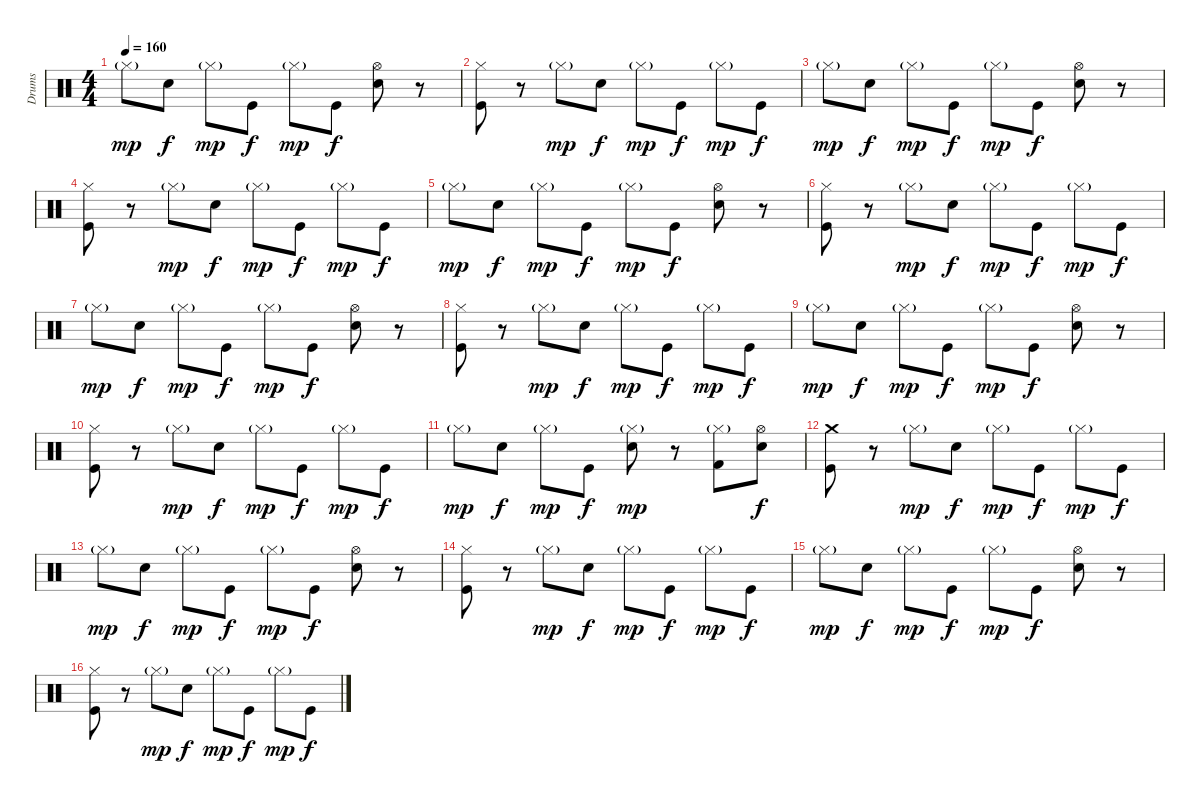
\track ("Drums" "Drums") {instrument percussion}
\staff {score}
\articulation defaults
\ts (4 4)
\tempo 160
\clef neutral
\ks c "Hi-Hat (closed)"{g}.8{dy mp} "Electric Snare (hit)".8{dy f} "Hi-Hat (closed)"{g}.8{dy mp} "Kick (hit)".8{dy f} "Hi-Hat (closed)"{g}.8{dy mp} "Kick (hit)".8{dy f}
("Hi-Hat (open)" "Electric Snare (hit)").8 r.8 |
("Hi-Hat (closed)" "Kick (hit)").8 r.8 "Hi-Hat (closed)"{g}.8{dy mp} "Electric Snare (hit)".8{dy f} "Hi-Hat (closed)"{g}.8{dy mp} "Kick (hit)".8{dy f} "Hi-Hat (closed)"{g}.8{dy mp} "Kick (hit)".8{dy f} |
"Hi-Hat (closed)"{g}.8{dy mp} "Electric Snare (hit)".8{dy f} "Hi-Hat (closed)"{g}.8{dy mp} "Kick (hit)".8{dy f} "Hi-Hat (closed)"{g}.8{dy mp} "Kick (hit)".8{dy f} ("Hi-Hat (open)" "Electric Snare (hit)").8 r.8 |
("Hi-Hat (closed)" "Kick (hit)").8 r.8 "Hi-Hat (closed)"{g}.8{dy mp} "Electric Snare (hit)".8{dy f} "Hi-Hat (closed)"{g}.8{dy mp} "Kick (hit)".8{dy f} "Hi-Hat (closed)"{g}.8{dy mp} "Kick (hit)".8{dy f} |
"Hi-Hat (closed)"{g}.8{dy mp} "Electric Snare (hit)".8{dy f} "Hi-Hat (closed)"{g}.8{dy mp} "Kick (hit)".8{dy f} "Hi-Hat (closed)"{g}.8{dy mp} "Kick (hit)".8{dy f} ("Hi-Hat (open)" "Electric Snare (hit)").8 r.8 |
("Hi-Hat (closed)" "Kick (hit)").8 r.8 "Hi-Hat (closed)"{g}.8{dy mp} "Electric Snare (hit)".8{dy f} "Hi-Hat (closed)"{g}.8{dy mp} "Kick (hit)".8{dy f} "Hi-Hat (closed)"{g}.8{dy mp} "Kick (hit)".8{dy f} |
"Hi-Hat (closed)"{g}.8{dy mp} "Electric Snare (hit)".8{dy f} "Hi-Hat (closed)"{g}.8{dy mp} "Kick (hit)".8{dy f} "Hi-Hat (closed)"{g}.8{dy mp} "Kick (hit)".8{dy f} ("Hi-Hat (open)" "Electric Snare (hit)").8 r.8 |
("Hi-Hat (closed)" "Kick (hit)").8 r.8 "Hi-Hat (closed)"{g}.8{dy mp} "Electric Snare (hit)".8{dy f} "Hi-Hat (closed)"{g}.8{dy mp} "Kick (hit)".8{dy f} "Hi-Hat (closed)"{g}.8{dy mp} "Kick (hit)".8{dy f} |
"Hi-Hat (closed)"{g}.8{dy mp} "Electric Snare (hit)".8{dy f} "Hi-Hat (closed)"{g}.8{dy mp} "Kick (hit)".8{dy f} "Hi-Hat (closed)"{g}.8{dy mp} "Kick (hit)".8{dy f} ("Hi-Hat (open)" "Electric Snare (hit)").8 r.8 |
("Hi-Hat (closed)" "Kick (hit)").8 r.8 "Hi-Hat (closed)"{g}.8{dy mp} "Electric Snare (hit)".8{dy f} "Hi-Hat (closed)"{g}.8{dy mp} "Kick (hit)".8{dy f} "Hi-Hat (closed)"{g}.8{dy mp} "Kick (hit)".8{dy f} |
"Hi-Hat (closed)"{g}.8{dy mp} "Electric Snare (hit)".8{dy f} "Hi-Hat (closed)"{g}.8{dy mp} "Kick (hit)".8{dy f} ("Hi-Hat (closed)"{g} "Electric Snare (hit)").8{dy mp} r.8 ("Hi-Hat (closed)"{g} "Kick (hit) 2").8 ("Hi-Hat (open)" "Electric Snare (hit)").8{dy f} |
("Crash medium (hit)" "Kick (hit)").8 r.8 "Hi-Hat (closed)"{g}.8{dy mp} "Electric Snare (hit)".8{dy f} "Hi-Hat (closed)"{g}.8{dy mp} "Kick (hit)".8{dy f} "Hi-Hat (closed)"{g}.8{dy mp} "Kick (hit)".8{dy f} |
"Hi-Hat (closed)"{g}.8{dy mp} "Electric Snare (hit)".8{dy f} "Hi-Hat (closed)"{g}.8{dy mp} "Kick (hit)".8{dy f} "Hi-Hat (closed)"{g}.8{dy mp} "Kick (hit)".8{dy f} ("Hi-Hat (open)" "Electric Snare (hit)").8 r.8 |
("Hi-Hat (closed)" "Kick (hit)").8 r.8 "Hi-Hat (closed)"{g}.8{dy mp} "Electric Snare (hit)".8{dy f} "Hi-Hat (closed)"{g}.8{dy mp} "Kick (hit)".8{dy f} "Hi-Hat (closed)"{g}.8{dy mp} "Kick (hit)".8{dy f} |
"Hi-Hat (closed)"{g}.8{dy mp} "Electric Snare (hit)".8{dy f} "Hi-Hat (closed)"{g}.8{dy mp} "Kick (hit)".8{dy f} "Hi-Hat (closed)"{g}.8{dy mp} "Kick (hit)".8{dy f} ("Hi-Hat (open)" "Electric Snare (hit)").8 r.8 |
("Hi-Hat (closed)" "Kick (hit)").8 r.8 "Hi-Hat (closed)"{g}.8{dy mp} "Electric Snare (hit)".8{dy f} "Hi-Hat (closed)"{g}.8{dy mp} "Kick (hit)".8{dy f} "Hi-Hat (closed)"{g}.8{dy mp} "Kick (hit)".8{dy f}
